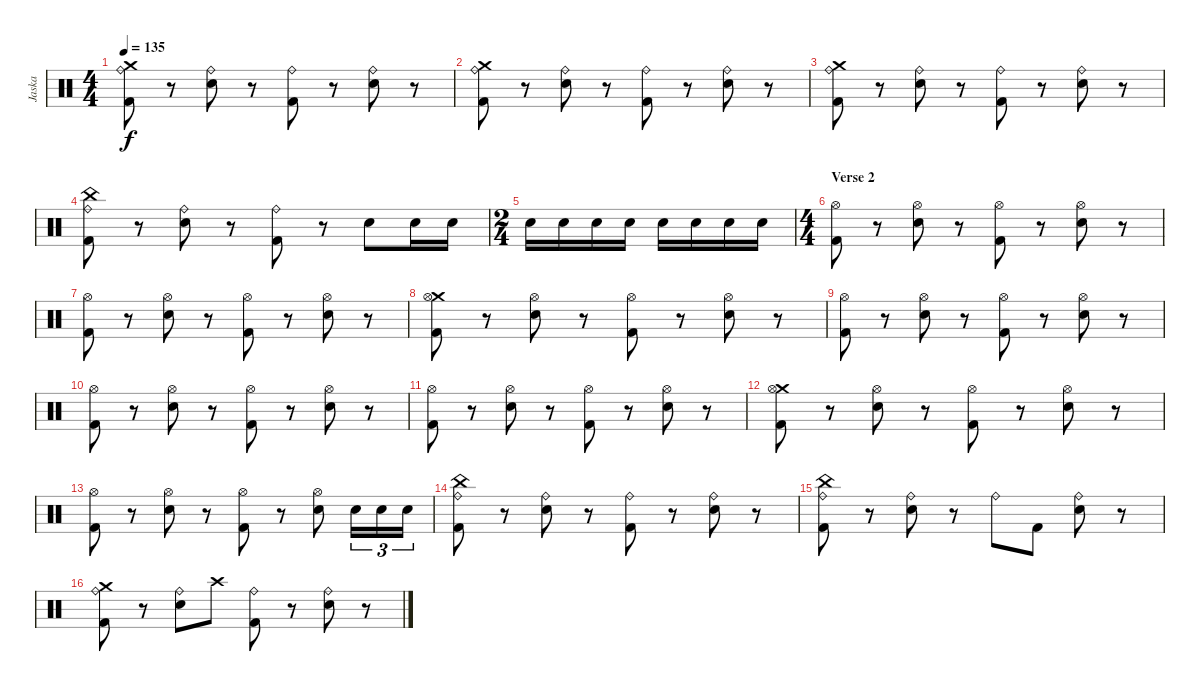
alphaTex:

\track ("Jaska" "Jaska") {instrument percussion}
\staff {score}
\articulation defaults
\ts (4 4)
\tempo 135
\clef neutral
\ks c
("Crash medium (hit)" "Ride (bell)" "Kick (hit) 2").8{dy f} r.8 ("Ride (bell)" "Snare (hit) 2").8 r.8 ("Ride (bell)" "Kick (hit) 2").8 r.8 ("Ride (bell)" "Snare (hit) 2").8 r.8 |
("Crash medium (hit)" "Ride (bell)" "Kick (hit) 2").8 r.8 ("Ride (bell)" "Snare (hit) 2").8 r.8 ("Ride (bell)" "Kick (hit) 2").8 r.8 ("Ride (bell)" "Snare (hit) 2").8 r.8 |
("Crash medium (hit)" "Ride (bell)" "Kick (hit) 2").8 r.8 ("Ride (bell)" "Snare (hit) 2").8 r.8 ("Ride (bell)" "Kick (hit) 2").8 r.8 ("Ride (bell)" "Snare (hit) 2").8 r.8 |
("Ride (bell)" "China (hit)" "Kick (hit) 2").8 r.8 ("Ride (bell)" "Snare (hit) 2").8 r.8 ("Ride (bell)" "Kick (hit) 2").8 r.8 "Electric Snare (hit)".8 "Electric Snare (hit)".16 "Electric Snare (hit)".16 |
\ts (2 4)
"Electric Snare (hit)".16 "Electric Snare (hit)".16 "Electric Snare (hit)".16 "Electric Snare (hit)".16 "Electric Snare (hit)".16 "Electric Snare (hit)".16 "Electric Snare (hit)".16 "Electric Snare (hit)".16 |
\ts (4 4)
\section ("" "Verse 2")
("Hi-Hat (open)" "Kick (hit) 2").8 r.8 ("Hi-Hat (open)" "Electric Snare (hit)").8 r.8 ("Hi-Hat (open)" "Kick (hit) 2").8 r.8 ("Hi-Hat (open)" "Electric Snare (hit)").8 r.8 |
("Hi-Hat (open)" "Kick (hit) 2").8 r.8 ("Hi-Hat (open)" "Electric Snare (hit)").8 r.8 ("Hi-Hat (open)" "Kick (hit) 2").8 r.8 ("Hi-Hat (open)" "Electric Snare (hit)").8 r.8 |
("Crash medium (hit)" "Hi-Hat (open)" "Kick (hit) 2").8 r.8 ("Hi-Hat (open)" "Electric Snare (hit)").8 r.8 ("Hi-Hat (open)" "Kick (hit) 2").8 r.8 ("Hi-Hat (open)" "Electric Snare (hit)").8 r.8 |
("Hi-Hat (open)" "Kick (hit) 2").8 r.8 ("Hi-Hat (open)" "Electric Snare (hit)").8 r.8 ("Hi-Hat (open)" "Kick (hit) 2").8 r.8 ("Hi-Hat (open)" "Electric Snare (hit)").8 r.8 |
("Hi-Hat (open)" "Kick (hit) 2").8 r.8 ("Hi-Hat (open)" "Electric Snare (hit)").8 r.8 ("Hi-Hat (open)" "Kick (hit) 2").8 r.8 ("Hi-Hat (open)" "Electric Snare (hit)").8 r.8 |
("Hi-Hat (open)" "Kick (hit) 2").8 r.8 ("Hi-Hat (open)" "Electric Snare (hit)").8 r.8 ("Hi-Hat (open)" "Kick (hit) 2").8 r.8 ("Hi-Hat (open)" "Electric Snare (hit)").8 r.8 |
("Crash medium (hit)" "Hi-Hat (open)" "Kick (hit) 2").8 r.8 ("Hi-Hat (open)" "Electric Snare (hit)").8 r.8 ("Hi-Hat (open)" "Kick (hit) 2").8 r.8 ("Hi-Hat (open)" "Electric Snare (hit)").8 r.8 |
("Hi-Hat (open)" "Kick (hit) 2").8 r.8 ("Hi-Hat (open)" "Electric Snare (hit)").8 r.8 ("Hi-Hat (open)" "Kick (hit) 2").8 r.8 ("Hi-Hat (open)" "Electric Snare (hit)").8 "Electric Snare (hit)".16{tu (3 2)} "Electric Snare (hit)".16{tu (3 2)} "Electric Snare (hit)".16{tu (3 2)} |
("Ride (bell)" "China (hit)" "Kick (hit) 2").8 r.8 ("Ride (bell)" "Snare (hit) 2").8 r.8 ("Ride (bell)" "Kick (hit) 2").8 r.8 ("Ride (bell)" "Snare (hit) 2").8 r.8 |
("Ride (bell)" "China (hit)" "Kick (hit) 2").8 r.8 ("Ride (bell)" "Snare (hit) 2").8 r.8 "Ride (bell)".8 "Kick (hit) 2".8 ("Ride (bell)" "Snare (hit) 2").8 r.8 |
("Ride (bell)" "Crash medium (hit)" "Kick (hit) 2").8 r.8 ("Ride (bell)" "Snare (hit) 2").8 "Crash high (hit)".8 ("Ride (bell)" "Kick (hit) 2").8 r.8 ("Ride (bell)" "Snare (hit) 2").8 r.8
